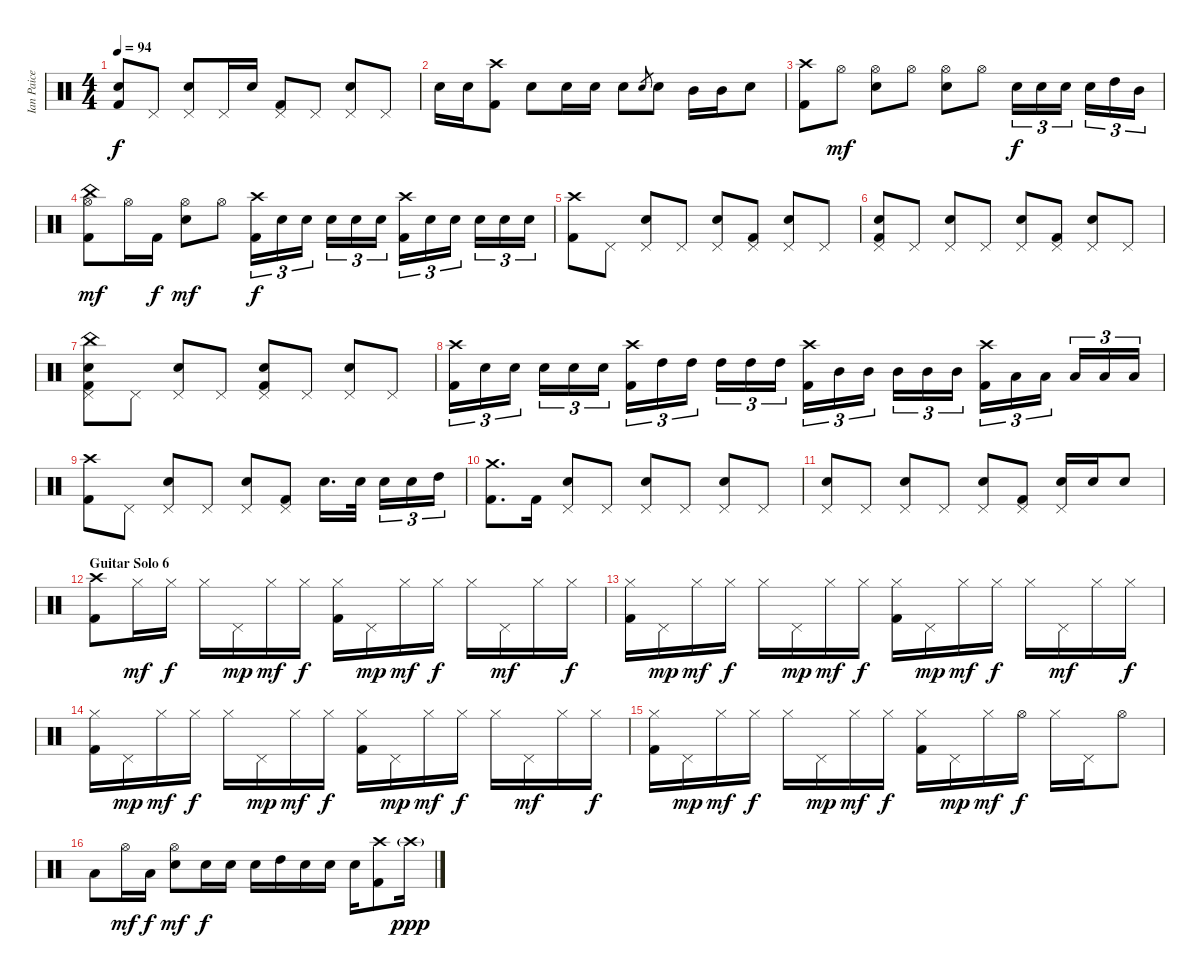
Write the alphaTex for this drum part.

\track ("Ian Paice (Drums)" "Ian Paice ") {instrument percussion}
\staff {score}
\articulation defaults
\ts (4 4)
\tempo 94
\clef neutral
\ks c
("Electric Snare (hit)" "Kick (hit) 2").8{dy f} "Pedal Hi-Hat (hit)".8 ("Pedal Hi-Hat (hit)" "Electric Snare (hit)").8 "Pedal Hi-Hat (hit)".16 "Electric Snare (hit)".16 ("Pedal Hi-Hat (hit)" "Kick (hit) 2").8 "Pedal Hi-Hat (hit)".8 ("Pedal Hi-Hat (hit)" "Electric Snare (hit)").8 "Pedal Hi-Hat (hit)".8 |
"Electric Snare (hit)".16 "Electric Snare (hit)".16 ("Crash high (hit)" "Kick (hit) 2").8 "Electric Snare (hit)".8 "Electric Snare (hit)".16 "Electric Snare (hit)".16 "Electric Snare (hit)".8 "Electric Snare (hit)".8{gr} "Electric Snare (hit)".8 "Mid Tom (hit)".16 "Mid Tom (hit)".16 "Electric Snare (hit)".8 |
("Crash high (hit)" "Kick (hit) 2").8 "Hi-Hat (open)".8{dy mf} ("Hi-Hat (open)" "Electric Snare (hit)").8 "Hi-Hat (open)".8 ("Hi-Hat (open)" "Electric Snare (hit)").8 "Hi-Hat (open)".8 "Electric Snare (hit)".16{tu (3 2) dy f} "Electric Snare (hit)".16{tu (3 2)} "Electric Snare (hit)".16{tu (3 2)} "Electric Snare (hit)".16{tu (3 2)} "High Tom (hit)".16{tu (3 2)} "Mid Tom (hit)".16{tu (3 2)} |
("China (hit)" "Hi-Hat (open)" "Kick (hit) 2").8{dy mf} "Hi-Hat (open)".16 "Kick (hit) 2".16{dy f} ("Hi-Hat (open)" "Electric Snare (hit)").8{dy mf} "Hi-Hat (open)".8 ("Crash high (hit)" "Kick (hit) 2").16{tu (3 2) dy f} "Electric Snare (hit)".16{tu (3 2)} "Electric Snare (hit)".16{tu (3 2)} "Electric Snare (hit)".16{tu (3 2)} "Electric Snare (hit)".16{tu (3 2)} "Electric Snare (hit)".16{tu (3 2)} ("Crash high (hit)" "Kick (hit) 2").16{tu (3 2)} "Electric Snare (hit)".16{tu (3 2)} "Electric Snare (hit)".16{tu (3 2)} "Electric Snare (hit)".16{tu (3 2)} "Electric Snare (hit)".16{tu (3 2)} "Electric Snare (hit)".16{tu (3 2)} |
("Crash high (hit)" "Kick (hit) 2").8 "Pedal Hi-Hat (hit)".8 ("Pedal Hi-Hat (hit)" "Electric Snare (hit)").8 "Pedal Hi-Hat (hit)".8 ("Pedal Hi-Hat (hit)" "Electric Snare (hit)").8 ("Pedal Hi-Hat (hit)" "Kick (hit) 2").8 ("Pedal Hi-Hat (hit)" "Electric Snare (hit)").8 "Pedal Hi-Hat (hit)".8 |
("Pedal Hi-Hat (hit)" "Electric Snare (hit)" "Kick (hit) 2").8 "Pedal Hi-Hat (hit)".8 ("Pedal Hi-Hat (hit)" "Electric Snare (hit)").8 "Pedal Hi-Hat (hit)".8 ("Pedal Hi-Hat (hit)" "Electric Snare (hit)").8 ("Pedal Hi-Hat (hit)" "Kick (hit) 2").8 ("Pedal Hi-Hat (hit)" "Electric Snare (hit)").8 "Pedal Hi-Hat (hit)".8 |
("China (hit)" "Pedal Hi-Hat (hit)" "Electric Snare (hit)" "Kick (hit) 2").8 "Pedal Hi-Hat (hit)".8 ("Pedal Hi-Hat (hit)" "Electric Snare (hit)").8 "Pedal Hi-Hat (hit)".8 ("Pedal Hi-Hat (hit)" "Electric Snare (hit)" "Kick (hit) 2").8 "Pedal Hi-Hat (hit)".8 ("Pedal Hi-Hat (hit)" "Electric Snare (hit)").8 "Pedal Hi-Hat (hit)".8 |
("Crash high (hit)" "Kick (hit) 2").16{tu (3 2)} "Electric Snare (hit)".16{tu (3 2)} "Electric Snare (hit)".16{tu (3 2)} "Electric Snare (hit)".16{tu (3 2)} "Electric Snare (hit)".16{tu (3 2)} "Electric Snare (hit)".16{tu (3 2)} ("Crash high (hit)" "Kick (hit) 2").16{tu (3 2)} "High Tom (hit)".16{tu (3 2)} "High Tom (hit)".16{tu (3 2)} "High Tom (hit)".16{tu (3 2)} "High Tom (hit)".16{tu (3 2)} "High Tom (hit)".16{tu (3 2)} ("Crash high (hit)" "Kick (hit) 2").16{tu (3 2)} "Mid Tom (hit)".16{tu (3 2)} "Mid Tom (hit)".16{tu (3 2)} "Mid Tom (hit)".16{tu (3 2)} "Mid Tom (hit)".16{tu (3 2)} "Mid Tom (hit)".16{tu (3 2)} ("Crash high (hit)" "Kick (hit) 2").16{tu (3 2)} "Low Tom (hit)".16{tu (3 2)} "Low Tom (hit)".16{tu (3 2)} "Low Tom (hit)".16{tu (3 2)} "Low Tom (hit)".16{tu (3 2)} "Low Tom (hit)".16{tu (3 2)} |
("Crash high (hit)" "Kick (hit) 2").8 "Pedal Hi-Hat (hit)".8 ("Pedal Hi-Hat (hit)" "Electric Snare (hit)").8 "Pedal Hi-Hat (hit)".8 ("Pedal Hi-Hat (hit)" "Electric Snare (hit)").8 ("Pedal Hi-Hat (hit)" "Kick (hit) 2").8 "Electric Snare (hit)".16{d} "Electric Snare (hit)".32 "Electric Snare (hit)".16{tu (3 2)} "Electric Snare (hit)".16{tu (3 2)} "High Tom (hit)".16{tu (3 2)} |
("Crash medium (hit)" "Kick (hit) 2").8{d} "Kick (hit) 2".16 ("Pedal Hi-Hat (hit)" "Electric Snare (hit)").8 "Pedal Hi-Hat (hit)".8 ("Pedal Hi-Hat (hit)" "Electric Snare (hit)").8 "Pedal Hi-Hat (hit)".8 ("Pedal Hi-Hat (hit)" "Electric Snare (hit)").8 "Pedal Hi-Hat (hit)".8 |
("Pedal Hi-Hat (hit)" "Electric Snare (hit)").8 "Pedal Hi-Hat (hit)".8 ("Pedal Hi-Hat (hit)" "Electric Snare (hit)").8 "Pedal Hi-Hat (hit)".8 ("Pedal Hi-Hat (hit)" "Electric Snare (hit)").8 ("Pedal Hi-Hat (hit)" "Kick (hit) 2").8 ("Pedal Hi-Hat (hit)" "Electric Snare (hit)").16 "Electric Snare (hit)".16 "Electric Snare (hit)".8 |
\section ("" "Guitar Solo 6")
("Crash high (hit)" "Kick (hit) 2").8 "Hi-Hat (closed)".16{dy mf} "Hi-Hat (closed)".16{dy f} "Hi-Hat (closed)".16 "Pedal Hi-Hat (hit)".16{dy mp} "Hi-Hat (closed)".16{dy mf} "Hi-Hat (closed)".16{dy f} ("Hi-Hat (closed)" "Kick (hit) 2").16 "Pedal Hi-Hat (hit)".16{dy mp} "Hi-Hat (closed)".16{dy mf} "Hi-Hat (closed)".16{dy f} "Hi-Hat (closed)".16 "Pedal Hi-Hat (hit)".16{dy mf} "Hi-Hat (closed)".16 "Hi-Hat (closed)".16{dy f} |
("Hi-Hat (closed)" "Kick (hit) 2").16 "Pedal Hi-Hat (hit)".16{dy mp} "Hi-Hat (closed)".16{dy mf} "Hi-Hat (closed)".16{dy f} "Hi-Hat (closed)".16 "Pedal Hi-Hat (hit)".16{dy mp} "Hi-Hat (closed)".16{dy mf} "Hi-Hat (closed)".16{dy f} ("Hi-Hat (closed)" "Kick (hit) 2").16 "Pedal Hi-Hat (hit)".16{dy mp} "Hi-Hat (closed)".16{dy mf} "Hi-Hat (closed)".16{dy f} "Hi-Hat (closed)".16 "Pedal Hi-Hat (hit)".16{dy mf} "Hi-Hat (closed)".16 "Hi-Hat (closed)".16{dy f} |
("Hi-Hat (closed)" "Kick (hit) 2").16 "Pedal Hi-Hat (hit)".16{dy mp} "Hi-Hat (closed)".16{dy mf} "Hi-Hat (closed)".16{dy f} "Hi-Hat (closed)".16 "Pedal Hi-Hat (hit)".16{dy mp} "Hi-Hat (closed)".16{dy mf} "Hi-Hat (closed)".16{dy f} ("Hi-Hat (closed)" "Kick (hit) 2").16 "Pedal Hi-Hat (hit)".16{dy mp} "Hi-Hat (closed)".16{dy mf} "Hi-Hat (closed)".16{dy f} "Hi-Hat (closed)".16 "Pedal Hi-Hat (hit)".16{dy mf} "Hi-Hat (closed)".16 "Hi-Hat (closed)".16{dy f} |
("Hi-Hat (closed)" "Kick (hit) 2").16 "Pedal Hi-Hat (hit)".16{dy mp} "Hi-Hat (closed)".16{dy mf} "Hi-Hat (closed)".16{dy f} "Hi-Hat (closed)".16 "Pedal Hi-Hat (hit)".16{dy mp} "Hi-Hat (closed)".16{dy mf} "Hi-Hat (closed)".16{dy f} ("Hi-Hat (closed)" "Kick (hit) 2").16 "Pedal Hi-Hat (hit)".16{dy mp} "Hi-Hat (closed)".16{dy mf} "Hi-Hat (open)".16{dy f} "Hi-Hat (closed)".16 "Pedal Hi-Hat (hit)".16 "Hi-Hat (open)".8 |
"Low Tom (hit)".8 "Hi-Hat (open)".16{dy mf} "Low Tom (hit)".16{dy f} ("Hi-Hat (open)" "Electric Snare (hit)").8{dy mf} "Electric Snare (hit)".16{dy f} "Electric Snare (hit)".16 "Electric Snare (hit)".16 "High Tom (hit)".16 "Electric Snare (hit)".16 "Electric Snare (hit)".16 "Electric Snare (hit)".16 ("Crash high (hit)" "Kick (hit) 2").8 "Crash high (hit)"{g}.16{dy ppp}
